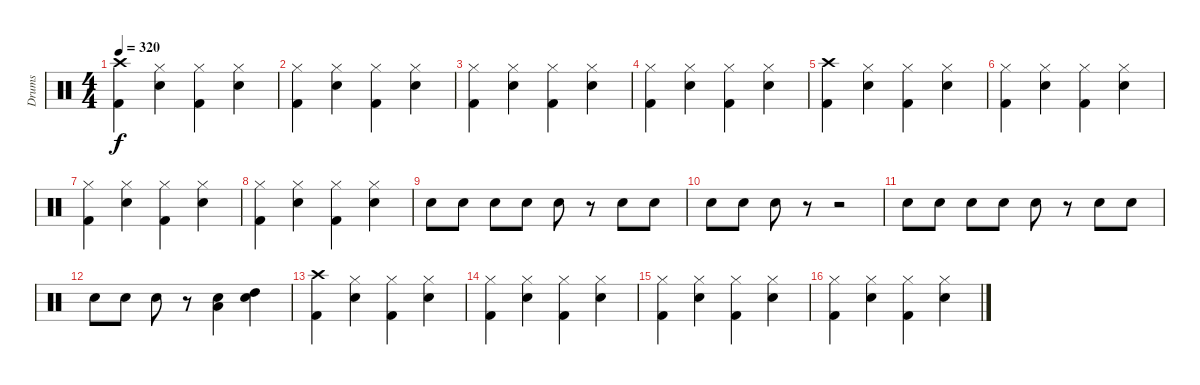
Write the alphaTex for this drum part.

\track ("Drums" "Drums") {instrument percussion}
\staff {score}
\articulation defaults
\ts (4 4)
\tempo 320
\clef neutral
\ks c
("Crash high (hit)" "Kick (hit) 2").4{dy f} ("Hi-Hat (closed)" "Snare (hit) 2").4 ("Hi-Hat (closed)" "Kick (hit) 2").4 ("Hi-Hat (closed)" "Snare (hit) 2").4 |
("Hi-Hat (closed)" "Kick (hit) 2").4 ("Hi-Hat (closed)" "Snare (hit) 2").4 ("Hi-Hat (closed)" "Kick (hit) 2").4 ("Hi-Hat (closed)" "Snare (hit) 2").4 |
("Hi-Hat (closed)" "Kick (hit) 2").4 ("Hi-Hat (closed)" "Snare (hit) 2").4 ("Hi-Hat (closed)" "Kick (hit) 2").4 ("Hi-Hat (closed)" "Snare (hit) 2").4 |
("Hi-Hat (closed)" "Kick (hit) 2").4 ("Hi-Hat (closed)" "Snare (hit) 2").4 ("Hi-Hat (closed)" "Kick (hit) 2").4 ("Hi-Hat (closed)" "Snare (hit) 2").4 |
("Crash high (hit)" "Kick (hit) 2").4 ("Hi-Hat (closed)" "Snare (hit) 2").4 ("Hi-Hat (closed)" "Kick (hit) 2").4 ("Hi-Hat (closed)" "Snare (hit) 2").4 |
("Hi-Hat (closed)" "Kick (hit) 2").4 ("Hi-Hat (closed)" "Snare (hit) 2").4 ("Hi-Hat (closed)" "Kick (hit) 2").4 ("Hi-Hat (closed)" "Snare (hit) 2").4 |
("Hi-Hat (closed)" "Kick (hit) 2").4 ("Hi-Hat (closed)" "Snare (hit) 2").4 ("Hi-Hat (closed)" "Kick (hit) 2").4 ("Hi-Hat (closed)" "Snare (hit) 2").4 |
("Hi-Hat (closed)" "Kick (hit) 2").4 ("Hi-Hat (closed)" "Snare (hit) 2").4 ("Hi-Hat (closed)" "Kick (hit) 2").4 ("Hi-Hat (closed)" "Snare (hit) 2").4 |
"Snare (hit) 2".8 "Snare (hit) 2".8 "Snare (hit) 2".8 "Snare (hit) 2".8 "Snare (hit) 2".8 r.8 "Snare (hit) 2".8 "Snare (hit) 2".8 |
"Snare (hit) 2".8 "Snare (hit) 2".8 "Snare (hit) 2".8 r.8 r.2 |
"Snare (hit) 2".8 "Snare (hit) 2".8 "Snare (hit) 2".8 "Snare (hit) 2".8 "Snare (hit) 2".8 r.8 "Snare (hit) 2".8 "Snare (hit) 2".8 |
"Snare (hit) 2".8 "Snare (hit) 2".8 "Snare (hit) 2".8 r.8 ("Snare (hit) 2" "Low Floor Tom (hit)").4 ("Snare (hit) 2" "High Tom (hit)").4 |
("Crash high (hit)" "Kick (hit) 2").4 ("Hi-Hat (closed)" "Snare (hit) 2").4 ("Hi-Hat (closed)" "Kick (hit) 2").4 ("Hi-Hat (closed)" "Snare (hit) 2").4 |
("Hi-Hat (closed)" "Kick (hit) 2").4 ("Hi-Hat (closed)" "Snare (hit) 2").4 ("Hi-Hat (closed)" "Kick (hit) 2").4 ("Hi-Hat (closed)" "Snare (hit) 2").4 |
("Hi-Hat (closed)" "Kick (hit) 2").4 ("Hi-Hat (closed)" "Snare (hit) 2").4 ("Hi-Hat (closed)" "Kick (hit) 2").4 ("Hi-Hat (closed)" "Snare (hit) 2").4 |
("Hi-Hat (closed)" "Kick (hit) 2").4 ("Hi-Hat (closed)" "Snare (hit) 2").4 ("Hi-Hat (closed)" "Kick (hit) 2").4 ("Hi-Hat (closed)" "Snare (hit) 2").4
